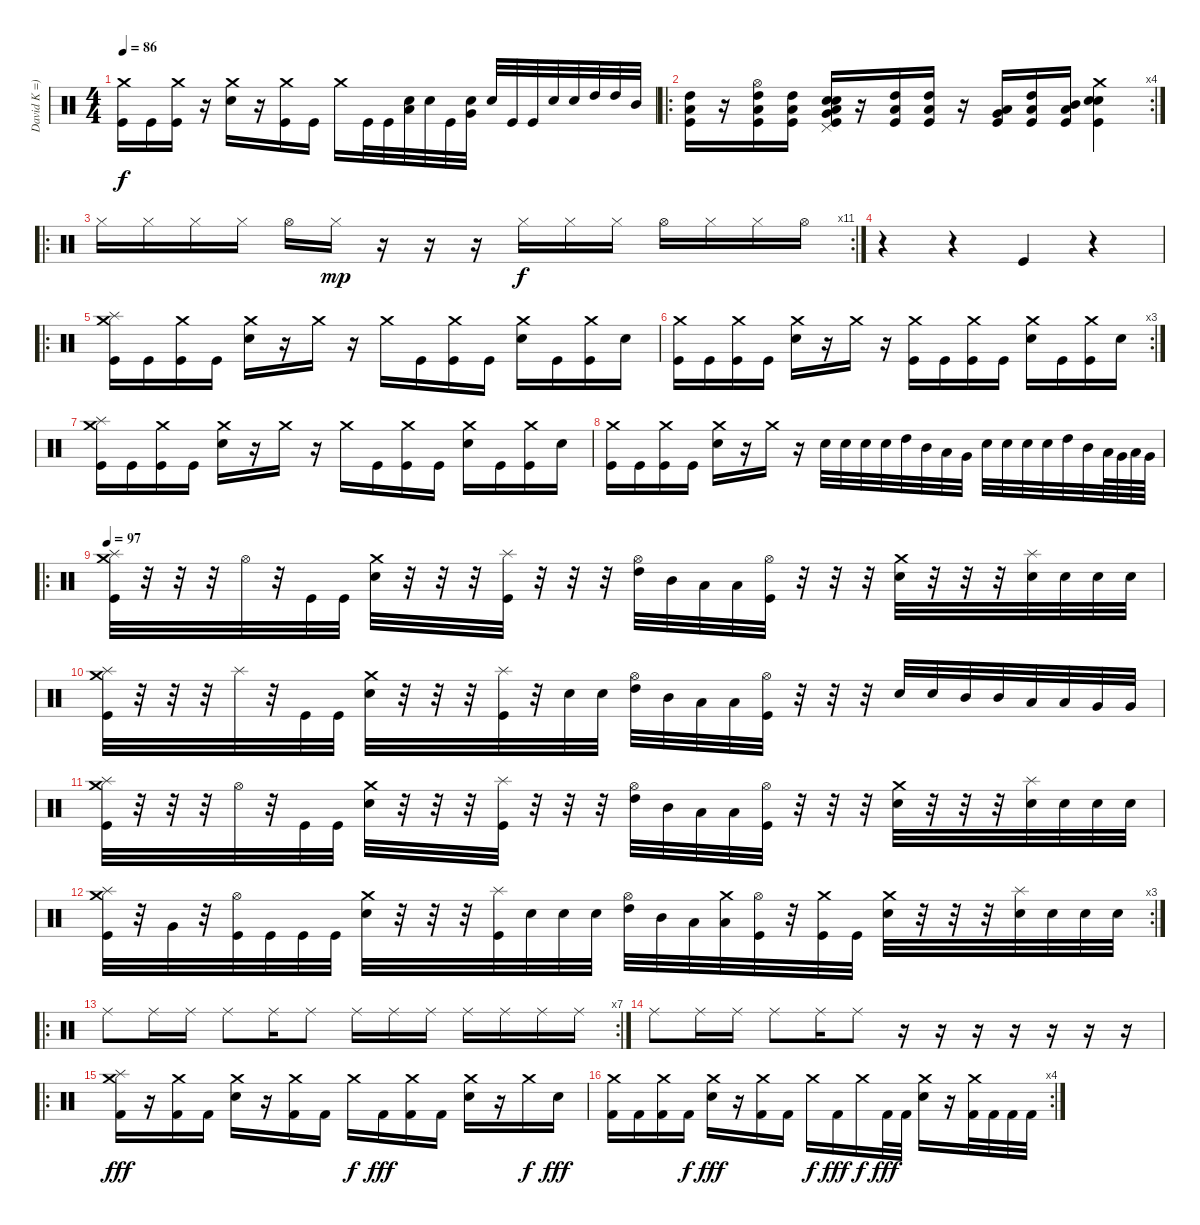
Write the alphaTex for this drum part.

\track ("David K =)" "David K =)") {instrument percussion}
\staff {score}
\articulation defaults
\ts (4 4)
\tempo 86
\clef neutral
\ks c
("Crash medium (hit)" "Kick (hit)").16{dy f} "Kick (hit)".16 ("Crash medium (hit)" "Kick (hit)").16 r.16 ("Crash medium (hit)" "Electric Snare (hit)").16 r.16 ("Crash medium (hit)" "Kick (hit)").16 "Kick (hit)".16 "Crash medium (hit)".16 "Kick (hit)".32 "Kick (hit)".32 ("Low Floor Tom (hit)" "Electric Snare (hit)").32 "Electric Snare (hit)".32 "Kick (hit)".32 ("Very Low Tom (hit)" "Electric Snare (hit)").32 "Electric Snare (hit)".32 "Kick (hit)".32 "Kick (hit)".32 "Electric Snare (hit)".32 "Electric Snare (hit)".32 "High Tom (hit)".32 "High Tom (hit)".32 "Mid Tom (hit)".32 |
\ro
\rc 4
("Low Floor Tom (hit)" "High Tom (hit)" "Kick (hit)").16 r.16 ("Hi-Hat (open)" "Low Floor Tom (hit)" "High Tom (hit)" "Kick (hit)").16 ("Low Floor Tom (hit)" "High Tom (hit)" "Kick (hit)").16 ("Pedal Hi-Hat (hit)" "Low Floor Tom (hit)" "Electric Snare (hit)" "Kick (hit)" "Snare (hit) 2" "Very Low Tom (hit)").16 r.16 ("Low Floor Tom (hit)" "High Tom (hit)" "Kick (hit)").16 ("Low Floor Tom (hit)" "High Tom (hit)" "Kick (hit)").16 r.16 ("Low Floor Tom (hit)" "Very Low Tom (hit)" "Kick (hit)").16 ("Low Floor Tom (hit)" "High Tom (hit)" "Kick (hit)").16 ("Low Floor Tom (hit)" "Mid Tom (hit)" "Kick (hit)").16 ("Crash medium (hit)" "Snare (hit) 2" "Electric Snare (hit)" "Kick (hit)").4 |
\ro
\rc 11 "Hi-Hat (closed)".16 "Hi-Hat (closed)".16 "Hi-Hat (closed)".16 "Hi-Hat (closed)".16 "Hi-Hat (open)".16 "Hi-Hat (closed)".16{dy mp}
r.16 r.16 r.16 "Hi-Hat (closed)".16{dy f} "Hi-Hat (closed)".16 "Hi-Hat (closed)".16 "Hi-Hat (open)".16 "Hi-Hat (closed)".16 "Hi-Hat (closed)".16 "Hi-Hat (open)".16 |
r.4 r.4 "Kick (hit)".4 r.4 |
\ro
("Splash (hit)" "Kick (hit)" "Crash medium (hit)").16 "Kick (hit)".16 ("Kick (hit)" "Crash medium (hit)").16 "Kick (hit)".16 ("Electric Snare (hit)" "Crash medium (hit)").16 r.16 "Crash medium (hit)".16 r.16 "Crash medium (hit)".16 "Kick (hit)".16 ("Kick (hit)" "Crash medium (hit)").16 "Kick (hit)".16 ("Electric Snare (hit)" "Crash medium (hit)").16 "Kick (hit)".16 ("Kick (hit)" "Crash medium (hit)").16 "Electric Snare (hit)".16 |
\rc 3
("Kick (hit)" "Crash medium (hit)").16 "Kick (hit)".16 ("Kick (hit)" "Crash medium (hit)").16 "Kick (hit)".16 ("Electric Snare (hit)" "Crash medium (hit)").16 r.16 "Crash medium (hit)".16 r.16 ("Kick (hit)" "Crash medium (hit)").16 "Kick (hit)".16 ("Kick (hit)" "Crash medium (hit)").16 "Kick (hit)".16 ("Electric Snare (hit)" "Crash medium (hit)").16 "Kick (hit)".16 ("Kick (hit)" "Crash medium (hit)").16 "Electric Snare (hit)".16 |
("Splash (hit)" "Kick (hit)" "Crash medium (hit)").16 "Kick (hit)".16 ("Kick (hit)" "Crash medium (hit)").16 "Kick (hit)".16 ("Electric Snare (hit)" "Crash medium (hit)").16 r.16 "Crash medium (hit)".16 r.16 "Crash medium (hit)".16 "Kick (hit)".16 ("Kick (hit)" "Crash medium (hit)").16 "Kick (hit)".16 ("Electric Snare (hit)" "Crash medium (hit)").16 "Kick (hit)".16 ("Kick (hit)" "Crash medium (hit)").16 "Electric Snare (hit)".16 |
("Kick (hit)" "Crash medium (hit)").16 "Kick (hit)".16 ("Kick (hit)" "Crash medium (hit)").16 "Kick (hit)".16 ("Electric Snare (hit)" "Crash medium (hit)").16 r.16 "Crash medium (hit)".16 r.16 "Electric Snare (hit)".32 "Electric Snare (hit)".32 "Electric Snare (hit)".32 "Electric Snare (hit)".32 "High Tom (hit)".32 "Mid Tom (hit)".32 "Low Tom (hit)".32 "Very Low Tom (hit)".32 "Electric Snare (hit)".32 "Electric Snare (hit)".32 "Electric Snare (hit)".32 "Electric Snare (hit)".32 "High Tom (hit)".32 "Mid Tom (hit)".32 "Low Tom (hit)".64 "Very Low Tom (hit)".64 "Low Floor Tom (hit)".64 "Very Low Tom (hit)".64 |
\ro
\tempo 97
("Splash (hit)" "Kick (hit)" "Crash medium (hit)").32 r.32 r.32 r.32 "Hi-Hat (open)".32 r.32 "Kick (hit)".32 "Kick (hit)".32 ("Crash medium (hit)" "Electric Snare (hit)").32 r.32 r.32 r.32 ("Splash (hit)" "Kick (hit)").32 r.32 r.32 r.32 ("Hi-Hat (open)" "High Tom (hit)").32 "Mid Tom (hit)".32 "Low Tom (hit)".32 "Low Floor Tom (hit)".32 ("Kick (hit)" "Hi-Hat (open)").32 r.32 r.32 r.32 ("Electric Snare (hit)" "Crash medium (hit)").32 r.32 r.32 r.32 ("Splash (hit)" "Electric Snare (hit)").32 "Electric Snare (hit)".32 "Electric Snare (hit)".32 "Electric Snare (hit)".32 |
("Splash (hit)" "Kick (hit)" "Crash medium (hit)").32 r.32 r.32 r.32 "Splash (hit)".32 r.32 "Kick (hit)".32 "Kick (hit)".32 ("Crash medium (hit)" "Electric Snare (hit)").32 r.32 r.32 r.32 ("Splash (hit)" "Kick (hit)").32 r.32 "Electric Snare (hit)".32 "Electric Snare (hit)".32 ("Hi-Hat (open)" "High Tom (hit)").32 "Mid Tom (hit)".32 "Low Tom (hit)".32 "Low Floor Tom (hit)".32 ("Kick (hit)" "Hi-Hat (open)").32 r.32 r.32 r.32 "Electric Snare (hit)".32 "Electric Snare (hit)".32 "Mid Tom (hit)".32 "Mid Tom (hit)".32 "Low Tom (hit)".32 "Low Tom (hit)".32 "Very Low Tom (hit)".32 "Very Low Tom (hit)".32 |
("Splash (hit)" "Kick (hit)" "Crash medium (hit)").32 r.32 r.32 r.32 "Hi-Hat (open)".32 r.32 "Kick (hit)".32 "Kick (hit)".32 ("Crash medium (hit)" "Electric Snare (hit)").32 r.32 r.32 r.32 ("Splash (hit)" "Kick (hit)").32 r.32 r.32 r.32 ("Hi-Hat (open)" "High Tom (hit)").32 "Mid Tom (hit)".32 "Low Tom (hit)".32 "Low Floor Tom (hit)".32 ("Kick (hit)" "Hi-Hat (open)").32 r.32 r.32 r.32 ("Electric Snare (hit)" "Crash medium (hit)").32 r.32 r.32 r.32 ("Splash (hit)" "Electric Snare (hit)").32 "Electric Snare (hit)".32 "Electric Snare (hit)".32 "Electric Snare (hit)".32 |
\rc 3
("Splash (hit)" "Kick (hit)" "Crash medium (hit)").32 r.32 "Very Low Tom (hit)".32 r.32 ("Kick (hit)" "Hi-Hat (open)").32 "Kick (hit)".32 "Kick (hit)".32 "Kick (hit)".32 ("Crash medium (hit)" "Electric Snare (hit)").32 r.32 r.32 r.32 ("Splash (hit)" "Kick (hit)").32 "Electric Snare (hit)".32 "Electric Snare (hit)".32 "Electric Snare (hit)".32 ("Hi-Hat (open)" "High Tom (hit)").32 "Mid Tom (hit)".32 "Low Tom (hit)".32 ("Crash medium (hit)" "Low Floor Tom (hit)").32 ("Kick (hit)" "Hi-Hat (open)").32 r.32 ("Crash medium (hit)" "Kick (hit)").32 "Kick (hit)".32 ("Electric Snare (hit)" "Crash medium (hit)").32 r.32 r.32 r.32 ("Splash (hit)" "Electric Snare (hit)").32 "Electric Snare (hit)".32 "Electric Snare (hit)".32 "Electric Snare (hit)".32 |
\ro
\rc 7 "Ride (middle)".8 "Ride (middle)".16 "Ride (middle)".16 "Ride (middle)".8 "Ride (middle)".16 "Ride (middle)".8 "Ride (middle)".16 "Ride (middle)".16 "Ride (middle)".16 "Ride (middle)".16 "Ride (middle)".16 "Ride (middle)".16 "Ride (middle)".16
|
"Ride (middle)".8 "Ride (middle)".16 "Ride (middle)".16 "Ride (middle)".8 "Ride (middle)".16 "Ride (middle)".8 r.16 r.16 r.16 r.16 r.16 r.16 r.16 |
\ro
("Splash (hit)" "Crash medium (hit)" "Kick (hit) 2").16{dy fff} r.16 ("Crash medium (hit)" "Kick (hit) 2").16 "Kick (hit) 2".16 ("Crash medium (hit)" "Electric Snare (hit)").16 r.16 ("Crash medium (hit)" "Kick (hit) 2").16 "Kick (hit) 2".16 "Crash medium (hit)".16{dy f} "Kick (hit) 2".16{dy fff} ("Crash medium (hit)" "Kick (hit) 2").16 "Kick (hit) 2".16 ("Crash medium (hit)" "Electric Snare (hit)").16 r.16 "Crash medium (hit)".16{dy f} "Electric Snare (hit)".16{dy fff} |
\rc 4
("Crash medium (hit)" "Kick (hit) 2").16 "Kick (hit) 2".16 ("Crash medium (hit)" "Kick (hit) 2").16 "Kick (hit) 2".16{dy f} ("Crash medium (hit)" "Electric Snare (hit)").16{dy fff} r.16 ("Crash medium (hit)" "Kick (hit) 2").16 "Kick (hit) 2".16 "Crash medium (hit)".16{dy f} "Kick (hit) 2".16{dy fff} "Crash medium (hit)".16{dy f} "Kick (hit) 2".32{dy fff} "Kick (hit) 2".32 ("Crash medium (hit)" "Electric Snare (hit)").16 r.16 ("Crash medium (hit)" "Kick (hit) 2").32 "Kick (hit) 2".32 "Kick (hit) 2".32 "Kick (hit) 2".32
